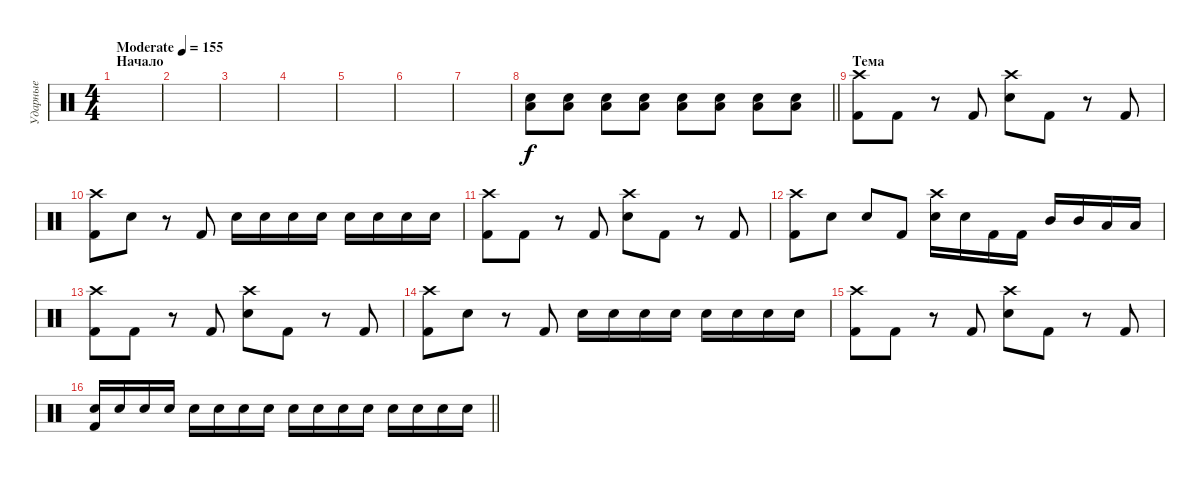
\track ("Ударные" "Ударные") {instrument percussion}
\staff {score}
\articulation defaults
\ts (4 4)
\section ("" "Начало")
\tempo (155 "Moderate")
\clef neutral
\ks c
|
|
|
|
|
|
|
\barLineRight lightlight
("Snare (hit) 2" "Low Tom (hit)").8{volume 8} ("Snare (hit) 2" "Low Tom (hit)").8{volume 13} ("Snare (hit) 2" "Low Tom (hit)").8 ("Snare (hit) 2" "Low Tom (hit)").8 ("Snare (hit) 2" "Low Tom (hit)").8 ("Snare (hit) 2" "Low Tom (hit)").8 ("Snare (hit) 2" "Low Tom (hit)").8 ("Snare (hit) 2" "Low Tom (hit)").8 |
\section ("" "Тема")
("Crash high (hit)" "Kick (hit) 2").8 "Kick (hit) 2".8 r.8 "Kick (hit) 2".8 ("Crash high (hit)" "Snare (hit) 2").8 "Kick (hit) 2".8 r.8 "Kick (hit) 2".8 |
("Crash high (hit)" "Kick (hit) 2").8 "Snare (hit) 2".8 r.8 "Kick (hit) 2".8 "Snare (hit) 2".16 "Snare (hit) 2".16 "Snare (hit) 2".16 "Snare (hit) 2".16 "Snare (hit) 2".16 "Snare (hit) 2".16 "Snare (hit) 2".16 "Snare (hit) 2".16 |
("Crash high (hit)" "Kick (hit) 2").8 "Kick (hit) 2".8 r.8 "Kick (hit) 2".8 ("Crash high (hit)" "Snare (hit) 2").8 "Kick (hit) 2".8 r.8 "Kick (hit) 2".8 |
("Crash high (hit)" "Kick (hit) 2").8 "Snare (hit) 2".8 "Snare (hit) 2".8 "Kick (hit) 2".8 ("Crash high (hit)" "Snare (hit) 2").16 "Snare (hit) 2".16 "Kick (hit) 2".16 "Kick (hit) 2".16 "Mid Tom (hit)".16 "Mid Tom (hit)".16 "Low Tom (hit)".16 "Low Tom (hit)".16 |
("Crash high (hit)" "Kick (hit) 2").8 "Kick (hit) 2".8 r.8 "Kick (hit) 2".8 ("Crash high (hit)" "Snare (hit) 2").8 "Kick (hit) 2".8 r.8 "Kick (hit) 2".8 |
("Crash high (hit)" "Kick (hit) 2").8 "Snare (hit) 2".8 r.8 "Kick (hit) 2".8 "Snare (hit) 2".16 "Snare (hit) 2".16 "Snare (hit) 2".16 "Snare (hit) 2".16 "Snare (hit) 2".16 "Snare (hit) 2".16 "Snare (hit) 2".16 "Snare (hit) 2".16 |
("Crash high (hit)" "Kick (hit) 2").8 "Kick (hit) 2".8 r.8 "Kick (hit) 2".8 ("Crash high (hit)" "Snare (hit) 2").8 "Kick (hit) 2".8 r.8 "Kick (hit) 2".8 |
\barLineRight lightlight
("Snare (hit) 2" "Kick (hit) 2").16 "Snare (hit) 2".16 "Snare (hit) 2".16 "Snare (hit) 2".16 "Snare (hit) 2".16 "Snare (hit) 2".16 "Snare (hit) 2".16 "Snare (hit) 2".16 "Snare (hit) 2".16 "Snare (hit) 2".16 "Snare (hit) 2".16 "Snare (hit) 2".16 "Snare (hit) 2".16 "Snare (hit) 2".16 "Snare (hit) 2".16 "Snare (hit) 2".16
